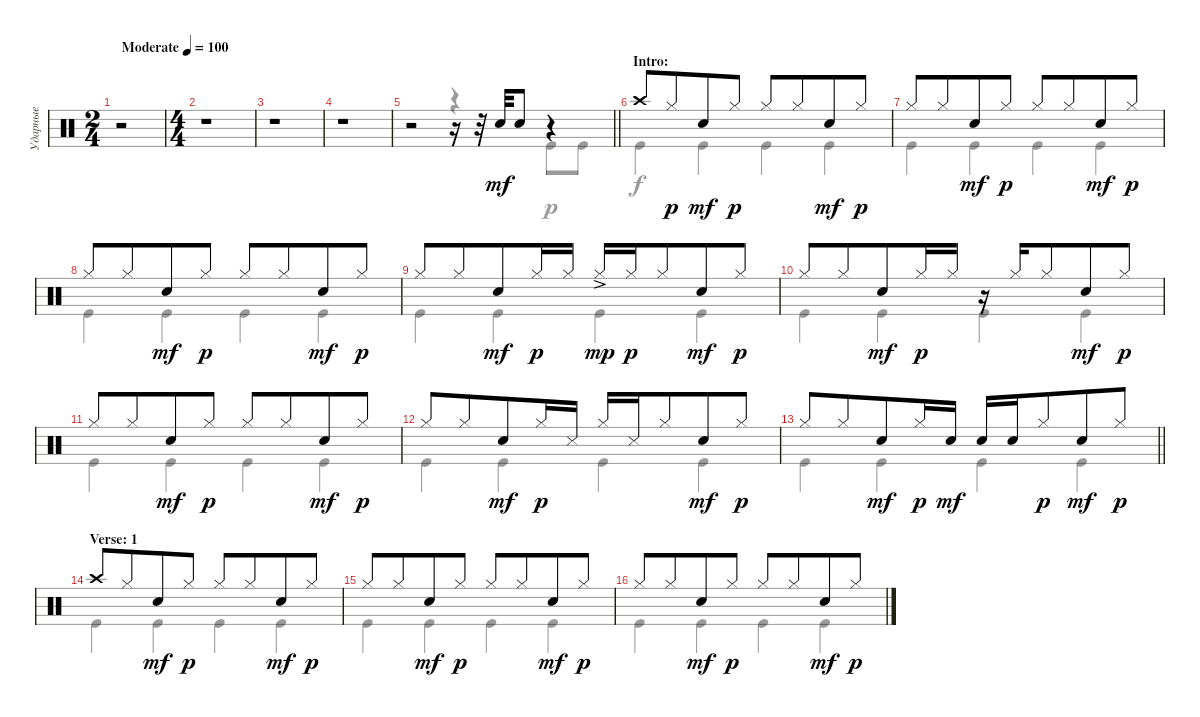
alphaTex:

\track ("Ударные" "Ударные") {instrument percussion}
\staff {score}
\articulation defaults
\voice
\ts (2 4)
\tempo (100 "Moderate")
\clef neutral
\ks c
r.2{dy mf} |
\ts (4 4)
r.1 |
r.1 |
r.1 |
\barLineRight lightlight
r.2 r.16 r.32 "Snare (hit) 2".32 "Snare (hit) 2".8 r.4 |
\section ("" "Intro:")
"Crash high (hit)".8 "Hi-Hat (closed)".8{dy p beam merge} "Snare (hit) 2".8{dy mf} "Hi-Hat (closed)".8{dy p} "Hi-Hat (closed)".8 "Hi-Hat (closed)".8{beam merge} "Snare (hit) 2".8{dy mf} "Hi-Hat (closed)".8{dy p} |
"Hi-Hat (closed)".8 "Hi-Hat (closed)".8{beam merge} "Snare (hit) 2".8{dy mf} "Hi-Hat (closed)".8{dy p} "Hi-Hat (closed)".8 "Hi-Hat (closed)".8{beam merge} "Snare (hit) 2".8{dy mf} "Hi-Hat (closed)".8{dy p} |
"Hi-Hat (closed)".8 "Hi-Hat (closed)".8{beam merge} "Snare (hit) 2".8{dy mf} "Hi-Hat (closed)".8{dy p} "Hi-Hat (closed)".8 "Hi-Hat (closed)".8{beam merge} "Snare (hit) 2".8{dy mf} "Hi-Hat (closed)".8{dy p} |
"Hi-Hat (closed)".8 "Hi-Hat (closed)".8{beam merge} "Snare (hit) 2".8{dy mf} "Hi-Hat (closed)".16{dy p} "Hi-Hat (closed)".16 "Hi-Hat (closed)"{ac}.16{dy mp} "Hi-Hat (closed)".16{dy p} "Hi-Hat (closed)".8{beam merge} "Snare (hit) 2".8{dy mf} "Hi-Hat (closed)".8{dy p} |
"Hi-Hat (closed)".8 "Hi-Hat (closed)".8{beam merge} "Snare (hit) 2".8{dy mf} "Hi-Hat (closed)".16{dy p} "Hi-Hat (closed)".16 r.16 "Hi-Hat (closed)".16 "Hi-Hat (closed)".8{beam merge} "Snare (hit) 2".8{dy mf} "Hi-Hat (closed)".8{dy p} |
"Hi-Hat (closed)".8 "Hi-Hat (closed)".8{beam merge} "Snare (hit) 2".8{dy mf} "Hi-Hat (closed)".8{dy p} "Hi-Hat (closed)".8 "Hi-Hat (closed)".8{beam merge} "Snare (hit) 2".8{dy mf} "Hi-Hat (closed)".8{dy p} |
"Hi-Hat (closed)".8 "Hi-Hat (closed)".8{beam merge} "Snare (hit) 2".8{dy mf} "Hi-Hat (closed)".16{dy p} "Snare (side stick) 3".16 "Hi-Hat (closed)".16 "Snare (side stick) 3".16 "Hi-Hat (closed)".8{beam merge} "Snare (hit) 2".8{dy mf} "Hi-Hat (closed)".8{dy p} |
\barLineRight lightlight "Hi-Hat (closed)".8 "Hi-Hat (closed)".8{beam merge} "Snare (hit) 2".8{dy mf} "Hi-Hat (closed)".16{dy p} "Snare (hit) 2".16{dy mf} "Snare (hit) 2".16 "Snare (hit) 2".16 "Hi-Hat (closed)".8{dy p beam merge} "Snare (hit) 2".8{dy mf} "Hi-Hat (closed)".8{dy p}
|
\section ("" "Verse: 1")
"Crash high (hit)".8 "Hi-Hat (closed)".8{beam merge} "Snare (hit) 2".8{dy mf} "Hi-Hat (closed)".8{dy p} "Hi-Hat (closed)".8 "Hi-Hat (closed)".8{beam merge} "Snare (hit) 2".8{dy mf} "Hi-Hat (closed)".8{dy p} |
"Hi-Hat (closed)".8 "Hi-Hat (closed)".8{beam merge} "Snare (hit) 2".8{dy mf} "Hi-Hat (closed)".8{dy p} "Hi-Hat (closed)".8 "Hi-Hat (closed)".8{beam merge} "Snare (hit) 2".8{dy mf} "Hi-Hat (closed)".8{dy p} |
"Hi-Hat (closed)".8 "Hi-Hat (closed)".8{beam merge} "Snare (hit) 2".8{dy mf} "Hi-Hat (closed)".8{dy p} "Hi-Hat (closed)".8 "Hi-Hat (closed)".8{beam merge} "Snare (hit) 2".8{dy mf} "Hi-Hat (closed)".8{dy p}
\voice
\clef neutral
\ottava regular
\simile none
\ks c
|
|
|
|
\barLineRight lightlight
r.2 r.4 "Kick (hit)".8 "Kick (hit)".8 |
"Kick (hit)".4{dy f} "Kick (hit)".4 "Kick (hit)".4 "Kick (hit)".4 |
"Kick (hit)".4 "Kick (hit)".4 "Kick (hit)".4 "Kick (hit)".4 |
"Kick (hit)".4 "Kick (hit)".4 "Kick (hit)".4 "Kick (hit)".4 |
"Kick (hit)".4 "Kick (hit)".4 "Kick (hit)".4 "Kick (hit)".4 |
"Kick (hit)".4 "Kick (hit)".4 "Kick (hit)".4 "Kick (hit)".4 |
"Kick (hit)".4 "Kick (hit)".4 "Kick (hit)".4 "Kick (hit)".4 |
"Kick (hit)".4 "Kick (hit)".4 "Kick (hit)".4 "Kick (hit)".4 |
\barLineRight lightlight "Kick (hit)".4 "Kick (hit)".4 "Kick (hit)".4 "Kick (hit)".4
|
"Kick (hit)".4 "Kick (hit)".4 "Kick (hit)".4 "Kick (hit)".4 |
"Kick (hit)".4 "Kick (hit)".4 "Kick (hit)".4 "Kick (hit)".4 |
"Kick (hit)".4 "Kick (hit)".4 "Kick (hit)".4 "Kick (hit)".4
